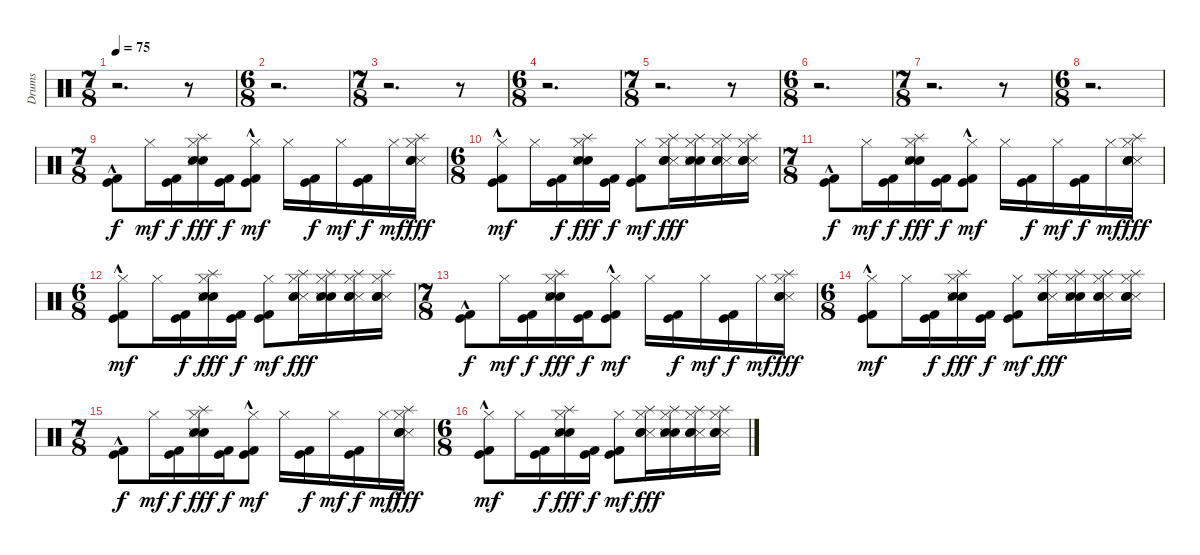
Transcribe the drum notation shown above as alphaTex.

\track ("Drums" "Drums") {instrument percussion}
\staff {score}
\articulation defaults
\ts (7 8)
\tempo 75
\clef neutral
\ks c
r.2{d dy f} r.8 |
\ts (6 8)
r.2{d} |
\ts (7 8)
r.2{d} r.8 |
\ts (6 8)
r.2{d} |
\ts (7 8)
r.2{d} r.8 |
\ts (6 8)
r.2{d} |
\ts (7 8)
r.2{d} r.8 |
\ts (6 8)
r.2{d} |
\ts (7 8)
("Kick (hit)"{hac} "Kick (hit) 2"{hac}).8 "Hi-Hat (closed)".16{dy mf} ("Kick (hit)" "Kick (hit) 2").16{dy f} ("Hi-Hat (closed)" "Electric Snare (hit)" "Splash (hit)" "Metronome (hit)" "Snare (hit) 2").16{dy fff} ("Kick (hit)" "Kick (hit) 2").16{dy f} ("Hi-Hat (closed)" "Kick (hit) 2"{hac} "Kick (hit)"{hac}).8{dy mf} "Hi-Hat (closed)".16 ("Kick (hit)" "Kick (hit) 2").16{dy f} "Hi-Hat (closed)".16{dy mf} ("Kick (hit)" "Kick (hit) 2").16{dy f} "Hi-Hat (closed)".16{dy mf} ("Splash (hit)" "Hi-Hat (closed)" "Metronome (hit)" "Snare (hit) 2" "Electric Snare (hit)").16{dy fff} |
\ts (6 8)
("Hi-Hat (closed)" "Kick (hit)"{hac} "Kick (hit) 2"{hac}).8{dy mf} "Hi-Hat (closed)".16 ("Kick (hit)" "Kick (hit) 2").16{dy f} ("Hi-Hat (closed)" "Splash (hit)" "Snare (hit) 2" "Metronome (hit)" "Electric Snare (hit)").16{dy fff} ("Kick (hit)" "Kick (hit) 2").16{dy f} ("Hi-Hat (closed)" "Kick (hit)" "Kick (hit) 2").8{dy mf} ("Splash (hit)" "Metronome (hit)" "Electric Snare (hit)" "Hi-Hat (closed)" "Snare (hit) 2").16{dy fff} ("Splash (hit)" "Electric Snare (hit)" "Snare (hit) 2" "Metronome (hit)" "Hi-Hat (closed)").16 ("Splash (hit)" "Metronome (hit)" "Snare (hit) 2" "Electric Snare (hit)" "Hi-Hat (closed)").16 ("Splash (hit)" "Metronome (hit)" "Snare (hit) 2" "Electric Snare (hit)" "Hi-Hat (closed)").16 |
\ts (7 8)
("Kick (hit)"{hac} "Kick (hit) 2"{hac}).8{dy f} "Hi-Hat (closed)".16{dy mf} ("Kick (hit)" "Kick (hit) 2").16{dy f} ("Hi-Hat (closed)" "Electric Snare (hit)" "Splash (hit)" "Metronome (hit)" "Snare (hit) 2").16{dy fff} ("Kick (hit)" "Kick (hit) 2").16{dy f} ("Hi-Hat (closed)" "Kick (hit) 2"{hac} "Kick (hit)"{hac}).8{dy mf} "Hi-Hat (closed)".16 ("Kick (hit)" "Kick (hit) 2").16{dy f} "Hi-Hat (closed)".16{dy mf} ("Kick (hit)" "Kick (hit) 2").16{dy f} "Hi-Hat (closed)".16{dy mf} ("Splash (hit)" "Hi-Hat (closed)" "Metronome (hit)" "Snare (hit) 2" "Electric Snare (hit)").16{dy fff} |
\ts (6 8)
("Hi-Hat (closed)" "Kick (hit)"{hac} "Kick (hit) 2"{hac}).8{dy mf} "Hi-Hat (closed)".16 ("Kick (hit)" "Kick (hit) 2").16{dy f} ("Hi-Hat (closed)" "Splash (hit)" "Snare (hit) 2" "Metronome (hit)" "Electric Snare (hit)").16{dy fff} ("Kick (hit)" "Kick (hit) 2").16{dy f} ("Hi-Hat (closed)" "Kick (hit)" "Kick (hit) 2").8{dy mf} ("Splash (hit)" "Metronome (hit)" "Electric Snare (hit)" "Hi-Hat (closed)" "Snare (hit) 2").16{dy fff} ("Splash (hit)" "Electric Snare (hit)" "Snare (hit) 2" "Metronome (hit)" "Hi-Hat (closed)").16 ("Splash (hit)" "Metronome (hit)" "Snare (hit) 2" "Electric Snare (hit)" "Hi-Hat (closed)").16 ("Splash (hit)" "Metronome (hit)" "Snare (hit) 2" "Electric Snare (hit)" "Hi-Hat (closed)").16 |
\ts (7 8)
("Kick (hit)"{hac} "Kick (hit) 2"{hac}).8{dy f} "Hi-Hat (closed)".16{dy mf} ("Kick (hit)" "Kick (hit) 2").16{dy f} ("Hi-Hat (closed)" "Electric Snare (hit)" "Splash (hit)" "Metronome (hit)" "Snare (hit) 2").16{dy fff} ("Kick (hit)" "Kick (hit) 2").16{dy f} ("Hi-Hat (closed)" "Kick (hit) 2"{hac} "Kick (hit)"{hac}).8{dy mf} "Hi-Hat (closed)".16 ("Kick (hit)" "Kick (hit) 2").16{dy f} "Hi-Hat (closed)".16{dy mf} ("Kick (hit)" "Kick (hit) 2").16{dy f} "Hi-Hat (closed)".16{dy mf} ("Splash (hit)" "Hi-Hat (closed)" "Metronome (hit)" "Snare (hit) 2" "Electric Snare (hit)").16{dy fff} |
\ts (6 8)
("Hi-Hat (closed)" "Kick (hit)"{hac} "Kick (hit) 2"{hac}).8{dy mf} "Hi-Hat (closed)".16 ("Kick (hit)" "Kick (hit) 2").16{dy f} ("Hi-Hat (closed)" "Splash (hit)" "Snare (hit) 2" "Metronome (hit)" "Electric Snare (hit)").16{dy fff} ("Kick (hit)" "Kick (hit) 2").16{dy f} ("Hi-Hat (closed)" "Kick (hit)" "Kick (hit) 2").8{dy mf} ("Splash (hit)" "Metronome (hit)" "Electric Snare (hit)" "Hi-Hat (closed)" "Snare (hit) 2").16{dy fff} ("Splash (hit)" "Electric Snare (hit)" "Snare (hit) 2" "Metronome (hit)" "Hi-Hat (closed)").16 ("Splash (hit)" "Metronome (hit)" "Snare (hit) 2" "Electric Snare (hit)" "Hi-Hat (closed)").16 ("Splash (hit)" "Metronome (hit)" "Snare (hit) 2" "Electric Snare (hit)" "Hi-Hat (closed)").16 |
\ts (7 8)
("Kick (hit)"{hac} "Kick (hit) 2"{hac}).8{dy f} "Hi-Hat (closed)".16{dy mf} ("Kick (hit)" "Kick (hit) 2").16{dy f} ("Hi-Hat (closed)" "Electric Snare (hit)" "Splash (hit)" "Metronome (hit)" "Snare (hit) 2").16{dy fff} ("Kick (hit)" "Kick (hit) 2").16{dy f} ("Hi-Hat (closed)" "Kick (hit) 2"{hac} "Kick (hit)"{hac}).8{dy mf} "Hi-Hat (closed)".16 ("Kick (hit)" "Kick (hit) 2").16{dy f} "Hi-Hat (closed)".16{dy mf} ("Kick (hit)" "Kick (hit) 2").16{dy f} "Hi-Hat (closed)".16{dy mf} ("Splash (hit)" "Hi-Hat (closed)" "Metronome (hit)" "Snare (hit) 2" "Electric Snare (hit)").16{dy fff} |
\ts (6 8)
("Hi-Hat (closed)" "Kick (hit)"{hac} "Kick (hit) 2"{hac}).8{dy mf} "Hi-Hat (closed)".16 ("Kick (hit)" "Kick (hit) 2").16{dy f} ("Hi-Hat (closed)" "Splash (hit)" "Snare (hit) 2" "Metronome (hit)" "Electric Snare (hit)").16{dy fff} ("Kick (hit)" "Kick (hit) 2").16{dy f} ("Hi-Hat (closed)" "Kick (hit)" "Kick (hit) 2").8{dy mf} ("Splash (hit)" "Metronome (hit)" "Electric Snare (hit)" "Hi-Hat (closed)" "Snare (hit) 2").16{dy fff} ("Splash (hit)" "Electric Snare (hit)" "Snare (hit) 2" "Metronome (hit)" "Hi-Hat (closed)").16 ("Splash (hit)" "Metronome (hit)" "Snare (hit) 2" "Electric Snare (hit)" "Hi-Hat (closed)").16 ("Splash (hit)" "Metronome (hit)" "Snare (hit) 2" "Electric Snare (hit)" "Hi-Hat (closed)").16
